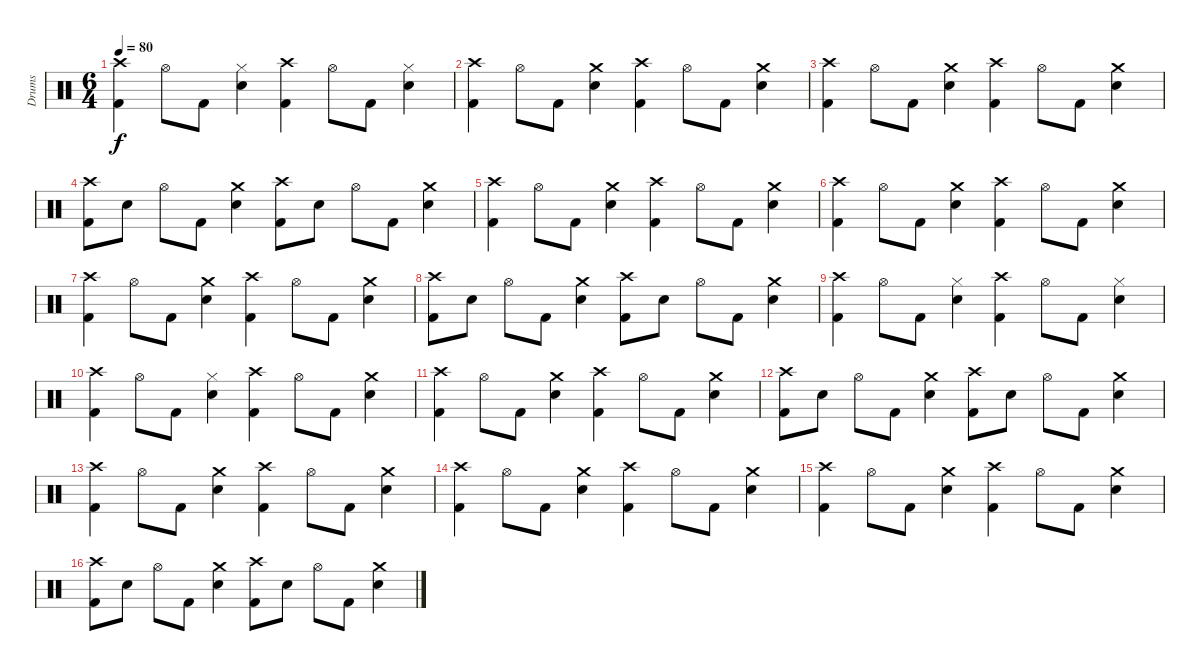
\track ("Drums" "Drums") {instrument percussion}
\staff {score}
\articulation defaults
\ts (6 4)
\tempo 80
\clef neutral
\ks c
("Crash high (hit)" "Kick (hit) 2").4{dy f} "Hi-Hat (open)".8 "Kick (hit) 2".8 ("Hi-Hat (closed)" "Electric Snare (hit)").4 ("Crash high (hit)" "Kick (hit) 2").4 "Hi-Hat (open)".8 "Kick (hit) 2".8 ("Hi-Hat (closed)" "Electric Snare (hit)").4 |
("Crash high (hit)" "Kick (hit) 2").4 "Hi-Hat (open)".8 "Kick (hit) 2".8 ("Crash medium (hit)" "Electric Snare (hit)").4 ("Crash high (hit)" "Kick (hit) 2").4 "Hi-Hat (open)".8 "Kick (hit) 2".8 ("Crash medium (hit)" "Electric Snare (hit)").4 |
("Crash high (hit)" "Kick (hit) 2").4 "Hi-Hat (open)".8 "Kick (hit) 2".8 ("Crash medium (hit)" "Electric Snare (hit)").4 ("Crash high (hit)" "Kick (hit) 2").4 "Hi-Hat (open)".8 "Kick (hit) 2".8 ("Crash medium (hit)" "Electric Snare (hit)").4 |
("Crash high (hit)" "Kick (hit) 2").8 "Electric Snare (hit)".8 "Hi-Hat (open)".8 "Kick (hit) 2".8 ("Crash medium (hit)" "Electric Snare (hit)").4 ("Crash high (hit)" "Kick (hit) 2").8 "Electric Snare (hit)".8 "Hi-Hat (open)".8 "Kick (hit) 2".8 ("Crash medium (hit)" "Electric Snare (hit)").4 |
("Crash high (hit)" "Kick (hit) 2").4 "Hi-Hat (open)".8 "Kick (hit) 2".8 ("Crash medium (hit)" "Electric Snare (hit)").4 ("Crash high (hit)" "Kick (hit) 2").4 "Hi-Hat (open)".8 "Kick (hit) 2".8 ("Crash medium (hit)" "Electric Snare (hit)").4 |
("Crash high (hit)" "Kick (hit) 2").4 "Hi-Hat (open)".8 "Kick (hit) 2".8 ("Crash medium (hit)" "Electric Snare (hit)").4 ("Crash high (hit)" "Kick (hit) 2").4 "Hi-Hat (open)".8 "Kick (hit) 2".8 ("Crash medium (hit)" "Electric Snare (hit)").4 |
("Crash high (hit)" "Kick (hit) 2").4 "Hi-Hat (open)".8 "Kick (hit) 2".8 ("Crash medium (hit)" "Electric Snare (hit)").4 ("Crash high (hit)" "Kick (hit) 2").4 "Hi-Hat (open)".8 "Kick (hit) 2".8 ("Crash medium (hit)" "Electric Snare (hit)").4 |
("Crash high (hit)" "Kick (hit) 2").8 "Electric Snare (hit)".8 "Hi-Hat (open)".8 "Kick (hit) 2".8 ("Crash medium (hit)" "Electric Snare (hit)").4 ("Crash high (hit)" "Kick (hit) 2").8 "Electric Snare (hit)".8 "Hi-Hat (open)".8 "Kick (hit) 2".8 ("Crash medium (hit)" "Electric Snare (hit)").4 |
("Crash high (hit)" "Kick (hit) 2").4 "Hi-Hat (open)".8 "Kick (hit) 2".8 ("Hi-Hat (closed)" "Electric Snare (hit)").4 ("Crash high (hit)" "Kick (hit) 2").4 "Hi-Hat (open)".8 "Kick (hit) 2".8 ("Hi-Hat (closed)" "Electric Snare (hit)").4 |
("Crash high (hit)" "Kick (hit) 2").4 "Hi-Hat (open)".8 "Kick (hit) 2".8 ("Hi-Hat (closed)" "Electric Snare (hit)").4 ("Crash high (hit)" "Kick (hit) 2").4 "Hi-Hat (open)".8 "Kick (hit) 2".8 ("Crash medium (hit)" "Electric Snare (hit)").4 |
("Crash high (hit)" "Kick (hit) 2").4 "Hi-Hat (open)".8 "Kick (hit) 2".8 ("Crash medium (hit)" "Electric Snare (hit)").4 ("Crash high (hit)" "Kick (hit) 2").4 "Hi-Hat (open)".8 "Kick (hit) 2".8 ("Crash medium (hit)" "Electric Snare (hit)").4 |
("Crash high (hit)" "Kick (hit) 2").8 "Electric Snare (hit)".8 "Hi-Hat (open)".8 "Kick (hit) 2".8 ("Crash medium (hit)" "Electric Snare (hit)").4 ("Crash high (hit)" "Kick (hit) 2").8 "Electric Snare (hit)".8 "Hi-Hat (open)".8 "Kick (hit) 2".8 ("Crash medium (hit)" "Electric Snare (hit)").4 |
("Crash high (hit)" "Kick (hit) 2").4 "Hi-Hat (open)".8 "Kick (hit) 2".8 ("Crash medium (hit)" "Electric Snare (hit)").4 ("Crash high (hit)" "Kick (hit) 2").4 "Hi-Hat (open)".8 "Kick (hit) 2".8 ("Crash medium (hit)" "Electric Snare (hit)").4 |
("Crash high (hit)" "Kick (hit) 2").4 "Hi-Hat (open)".8 "Kick (hit) 2".8 ("Crash medium (hit)" "Electric Snare (hit)").4 ("Crash high (hit)" "Kick (hit) 2").4 "Hi-Hat (open)".8 "Kick (hit) 2".8 ("Crash medium (hit)" "Electric Snare (hit)").4 |
("Crash high (hit)" "Kick (hit) 2").4 "Hi-Hat (open)".8 "Kick (hit) 2".8 ("Crash medium (hit)" "Electric Snare (hit)").4 ("Crash high (hit)" "Kick (hit) 2").4 "Hi-Hat (open)".8 "Kick (hit) 2".8 ("Crash medium (hit)" "Electric Snare (hit)").4 |
("Crash high (hit)" "Kick (hit) 2").8 "Electric Snare (hit)".8 "Hi-Hat (open)".8 "Kick (hit) 2".8 ("Crash medium (hit)" "Electric Snare (hit)").4 ("Crash high (hit)" "Kick (hit) 2").8 "Electric Snare (hit)".8 "Hi-Hat (open)".8 "Kick (hit) 2".8 ("Crash medium (hit)" "Electric Snare (hit)").4
